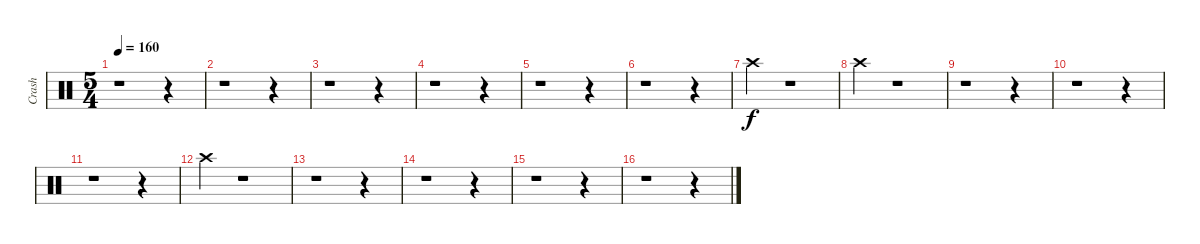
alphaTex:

\track ("Crash" "Crash") {instrument percussion}
\staff {score}
\articulation defaults
\ts (5 4)
\tempo 160
\clef neutral
\ks c
r.1{dy f} r.4 |
r.1 r.4 |
r.1 r.4 |
r.1 r.4 |
r.1 r.4 |
r.1 r.4 |
"Crash high (hit)".4 r.1 |
"Crash high (hit)".4 r.1 |
r.1 r.4 |
r.1 r.4 |
r.1 r.4 |
"Crash high (hit)".4 r.1 |
r.1 r.4 |
r.1 r.4 |
r.1 r.4 |
r.1 r.4
